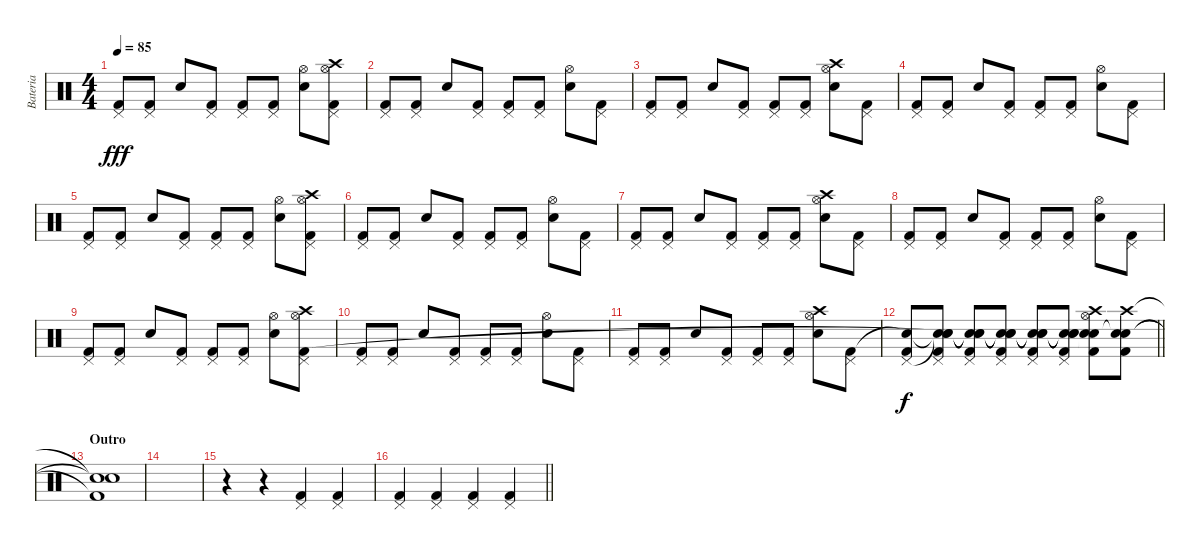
\track ("Bateria" "Bateria") {instrument percussion}
\staff {score}
\articulation defaults
\ts (4 4)
\tempo 85
\clef neutral
\ks c
("Pedal Hi-Hat (hit)" "Kick (hit) 2").8{dy fff} ("Pedal Hi-Hat (hit)" "Kick (hit) 2").8 "Snare (hit) 2".8 ("Pedal Hi-Hat (hit)" "Kick (hit) 2").8 ("Pedal Hi-Hat (hit)" "Kick (hit) 2").8 ("Pedal Hi-Hat (hit)" "Kick (hit) 2").8 ("Hi-Hat (open)" "Snare (hit) 2").8 ("Crash high (hit)" "Hi-Hat (open)" "Pedal Hi-Hat (hit)" "Kick (hit) 2").8 |
("Pedal Hi-Hat (hit)" "Kick (hit) 2").8 ("Pedal Hi-Hat (hit)" "Kick (hit) 2").8 "Snare (hit) 2".8 ("Pedal Hi-Hat (hit)" "Kick (hit) 2").8 ("Pedal Hi-Hat (hit)" "Kick (hit) 2").8 ("Pedal Hi-Hat (hit)" "Kick (hit) 2").8 ("Hi-Hat (open)" "Snare (hit) 2").8 ("Pedal Hi-Hat (hit)" "Kick (hit) 2").8 |
("Pedal Hi-Hat (hit)" "Kick (hit) 2").8 ("Pedal Hi-Hat (hit)" "Kick (hit) 2").8 "Snare (hit) 2".8 ("Pedal Hi-Hat (hit)" "Kick (hit) 2").8 ("Pedal Hi-Hat (hit)" "Kick (hit) 2").8 ("Pedal Hi-Hat (hit)" "Kick (hit) 2").8 ("Crash high (hit)" "Hi-Hat (open)" "Snare (hit) 2").8 ("Pedal Hi-Hat (hit)" "Kick (hit) 2").8 |
("Pedal Hi-Hat (hit)" "Kick (hit) 2").8 ("Pedal Hi-Hat (hit)" "Kick (hit) 2").8 "Snare (hit) 2".8 ("Pedal Hi-Hat (hit)" "Kick (hit) 2").8 ("Pedal Hi-Hat (hit)" "Kick (hit) 2").8 ("Pedal Hi-Hat (hit)" "Kick (hit) 2").8 ("Hi-Hat (open)" "Snare (hit) 2").8 ("Pedal Hi-Hat (hit)" "Kick (hit) 2").8 |
("Pedal Hi-Hat (hit)" "Kick (hit) 2").8 ("Pedal Hi-Hat (hit)" "Kick (hit) 2").8 "Snare (hit) 2".8 ("Pedal Hi-Hat (hit)" "Kick (hit) 2").8 ("Pedal Hi-Hat (hit)" "Kick (hit) 2").8 ("Pedal Hi-Hat (hit)" "Kick (hit) 2").8 ("Hi-Hat (open)" "Snare (hit) 2").8 ("Crash high (hit)" "Hi-Hat (open)" "Pedal Hi-Hat (hit)" "Kick (hit) 2").8 |
("Pedal Hi-Hat (hit)" "Kick (hit) 2").8 ("Pedal Hi-Hat (hit)" "Kick (hit) 2").8 "Snare (hit) 2".8 ("Pedal Hi-Hat (hit)" "Kick (hit) 2").8 ("Pedal Hi-Hat (hit)" "Kick (hit) 2").8 ("Pedal Hi-Hat (hit)" "Kick (hit) 2").8 ("Hi-Hat (open)" "Snare (hit) 2").8 ("Pedal Hi-Hat (hit)" "Kick (hit) 2").8 |
("Pedal Hi-Hat (hit)" "Kick (hit) 2").8 ("Pedal Hi-Hat (hit)" "Kick (hit) 2").8 "Snare (hit) 2".8 ("Pedal Hi-Hat (hit)" "Kick (hit) 2").8 ("Pedal Hi-Hat (hit)" "Kick (hit) 2").8 ("Pedal Hi-Hat (hit)" "Kick (hit) 2").8 ("Crash high (hit)" "Hi-Hat (open)" "Snare (hit) 2").8 ("Pedal Hi-Hat (hit)" "Kick (hit) 2").8 |
("Pedal Hi-Hat (hit)" "Kick (hit) 2").8 ("Pedal Hi-Hat (hit)" "Kick (hit) 2").8 "Snare (hit) 2".8 ("Pedal Hi-Hat (hit)" "Kick (hit) 2").8 ("Pedal Hi-Hat (hit)" "Kick (hit) 2").8 ("Pedal Hi-Hat (hit)" "Kick (hit) 2").8 ("Hi-Hat (open)" "Snare (hit) 2").8 ("Pedal Hi-Hat (hit)" "Kick (hit) 2").8 |
("Pedal Hi-Hat (hit)" "Kick (hit) 2").8 ("Pedal Hi-Hat (hit)" "Kick (hit) 2").8 "Snare (hit) 2".8 ("Pedal Hi-Hat (hit)" "Kick (hit) 2").8 ("Pedal Hi-Hat (hit)" "Kick (hit) 2").8 ("Pedal Hi-Hat (hit)" "Kick (hit) 2").8 ("Hi-Hat (open)" "Snare (hit) 2").8 ("Crash high (hit)" "Hi-Hat (open)" "Pedal Hi-Hat (hit)" "Kick (hit) 2").8 |
("Pedal Hi-Hat (hit)" "Kick (hit) 2").8 ("Pedal Hi-Hat (hit)" "Kick (hit) 2").8 "Snare (hit) 2".8 ("Pedal Hi-Hat (hit)" "Kick (hit) 2").8 ("Pedal Hi-Hat (hit)" "Kick (hit) 2").8 ("Pedal Hi-Hat (hit)" "Kick (hit) 2").8 ("Hi-Hat (open)" "Snare (hit) 2").8 ("Pedal Hi-Hat (hit)" "Kick (hit) 2").8 |
("Pedal Hi-Hat (hit)" "Kick (hit) 2").8 ("Pedal Hi-Hat (hit)" "Kick (hit) 2").8 "Snare (hit) 2".8 ("Pedal Hi-Hat (hit)" "Kick (hit) 2").8 ("Pedal Hi-Hat (hit)" "Kick (hit) 2").8 ("Pedal Hi-Hat (hit)" "Kick (hit) 2").8 ("Crash high (hit)" "Hi-Hat (open)" "Snare (hit) 2").8 ("Pedal Hi-Hat (hit)" "Kick (hit) 2").8 |
\barLineRight lightlight
("Pedal Hi-Hat (hit)" "Snare (hit) 2"{t} "Kick (hit) 2").8{dy f} ("Snare (hit)"{t} "Snare (hit)"{t} "Pedal Hi-Hat (hit)" "Snare (hit)"{t} "Kick (hit) 2").8 ("Snare (hit)"{t} "Snare (hit)"{t} "Pedal Hi-Hat (hit)" "Snare (hit)"{t} "Kick (hit) 2").8 ("Snare (hit)"{t} "Snare (hit)"{t} "Pedal Hi-Hat (hit)" "Snare (hit)"{t} "Kick (hit) 2").8 ("Snare (hit)"{t} "Snare (hit)"{t} "Pedal Hi-Hat (hit)" "Snare (hit)"{t} "Kick (hit) 2").8 ("Snare (hit)"{t} "Snare (hit)"{t} "Pedal Hi-Hat (hit)" "Snare (hit)"{t} "Kick (hit) 2").8 ("Snare (hit)"{t} "Hi-Hat (open)" "Crash high (hit)" "Snare (hit) 2" "Kick (hit) 2").8 ("Snare (hit)"{t} "Crash high (hit)" "Snare (hit) 2" "Kick (hit) 2").8 |
\section ("" "Outro")
("Snare (hit)"{t} "Snare (hit)"{t} "Kick (hit) 2"{t}).1 |
|
r.4 r.4 ("Pedal Hi-Hat (hit)" "Kick (hit) 2").4 ("Pedal Hi-Hat (hit)" "Kick (hit) 2").4 |
\barLineRight lightlight
("Pedal Hi-Hat (hit)" "Kick (hit) 2").4 ("Pedal Hi-Hat (hit)" "Kick (hit) 2").4 ("Pedal Hi-Hat (hit)" "Kick (hit) 2").4 ("Pedal Hi-Hat (hit)" "Kick (hit) 2").4
